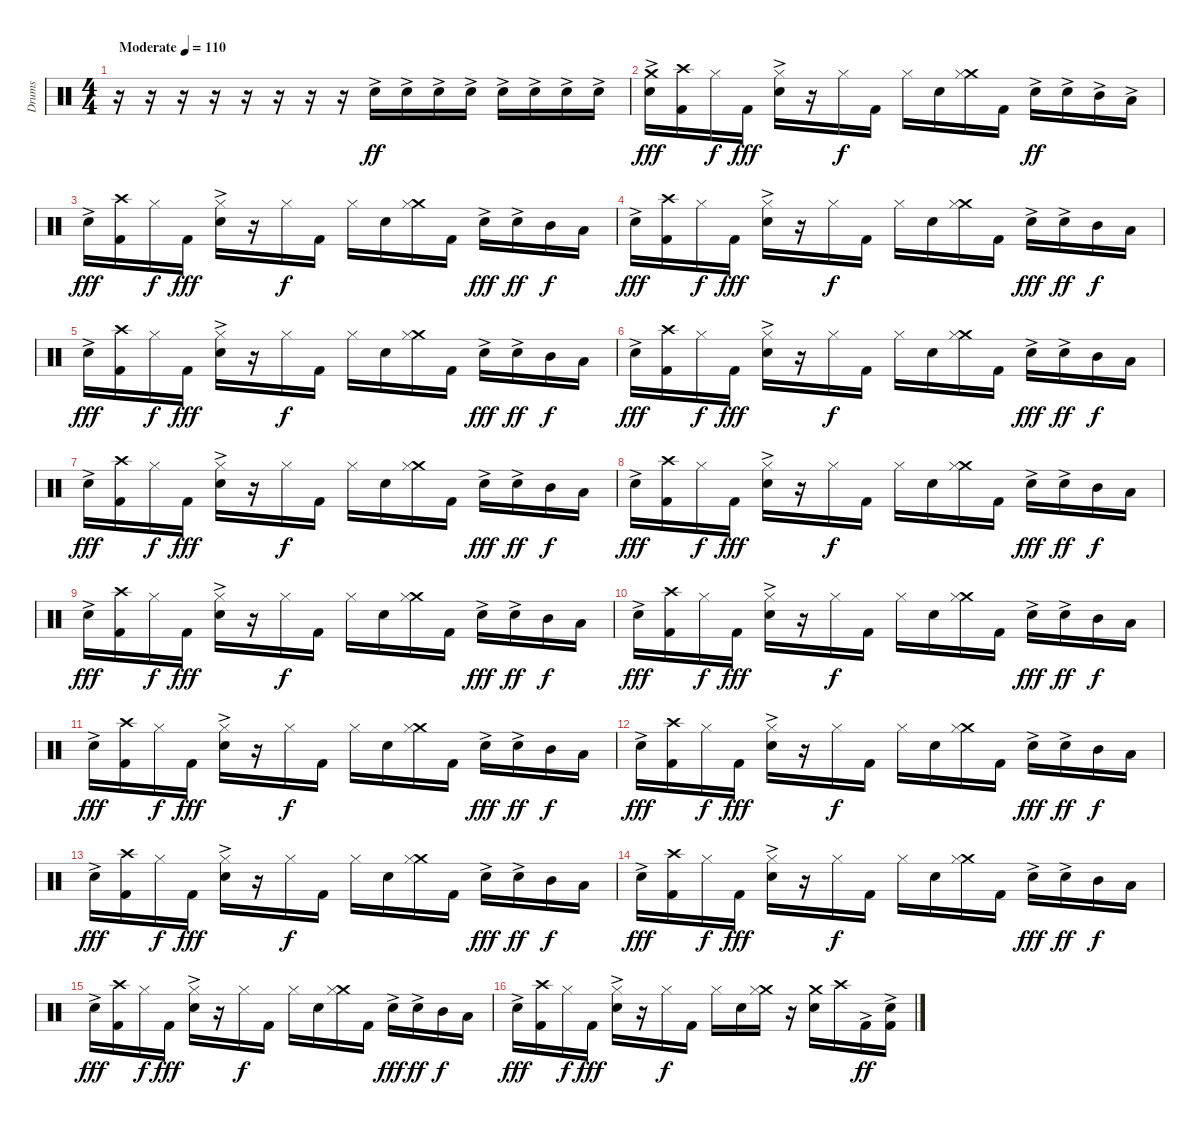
\track ("Drums" "Drums") {instrument percussion}
\staff {score}
\articulation defaults
\ts (4 4)
\tempo (110 "Moderate")
\clef neutral
\ks c
r.16{dy ff} r.16 r.16 r.16 r.16 r.16 r.16 r.16 "Electric Snare (hit)"{ac}.16 "Electric Snare (hit)"{ac}.16 "Electric Snare (hit)"{ac}.16 "Electric Snare (hit)"{ac}.16 "Electric Snare (hit)"{ac}.16 "Electric Snare (hit)"{ac}.16 "Electric Snare (hit)"{ac}.16 "Electric Snare (hit)"{ac}.16 |
("Crash medium (hit)" "Electric Snare (hit)"{ac}).16{dy fff} ("Crash high (hit)" "Kick (hit) 2").16 "Hi-Hat (closed)".16{dy f} "Kick (hit) 2".16{dy fff} ("Hi-Hat (closed)" "Snare (hit) 2"{ac}).16 r.16 "Hi-Hat (closed)".16{dy f} "Kick (hit) 2".16 "Hi-Hat (closed)".16 "Snare (hit) 2".16 ("Crash medium (hit)" "Hi-Hat (closed)").16 "Kick (hit) 2".16 "Electric Snare (hit)"{ac}.16{dy ff} "Electric Snare (hit)"{ac}.16 "Mid Tom (hit)"{ac}.16 "Low Tom (hit)"{ac}.16 |
"Electric Snare (hit)"{ac}.16{dy fff} ("Crash high (hit)" "Kick (hit) 2").16 "Hi-Hat (closed)".16{dy f} "Kick (hit) 2".16{dy fff} ("Hi-Hat (closed)" "Snare (hit) 2"{ac}).16 r.16 "Hi-Hat (closed)".16{dy f} "Kick (hit) 2".16 "Hi-Hat (closed)".16 "Snare (hit) 2".16 ("Crash medium (hit)" "Hi-Hat (closed)").16 "Kick (hit) 2".16 "Electric Snare (hit)"{ac}.16{dy fff} "Electric Snare (hit)"{ac}.16{dy ff} "Mid Tom (hit)".16{dy f} "Low Tom (hit)".16 |
"Electric Snare (hit)"{ac}.16{dy fff} ("Crash high (hit)" "Kick (hit) 2").16 "Hi-Hat (closed)".16{dy f} "Kick (hit) 2".16{dy fff} ("Hi-Hat (closed)" "Snare (hit) 2"{ac}).16 r.16 "Hi-Hat (closed)".16{dy f} "Kick (hit) 2".16 "Hi-Hat (closed)".16 "Snare (hit) 2".16 ("Crash medium (hit)" "Hi-Hat (closed)").16 "Kick (hit) 2".16 "Electric Snare (hit)"{ac}.16{dy fff} "Electric Snare (hit)"{ac}.16{dy ff} "Mid Tom (hit)".16{dy f} "Low Tom (hit)".16 |
"Electric Snare (hit)"{ac}.16{dy fff} ("Crash high (hit)" "Kick (hit) 2").16 "Hi-Hat (closed)".16{dy f} "Kick (hit) 2".16{dy fff} ("Hi-Hat (closed)" "Snare (hit) 2"{ac}).16 r.16 "Hi-Hat (closed)".16{dy f} "Kick (hit) 2".16 "Hi-Hat (closed)".16 "Snare (hit) 2".16 ("Crash medium (hit)" "Hi-Hat (closed)").16 "Kick (hit) 2".16 "Electric Snare (hit)"{ac}.16{dy fff} "Electric Snare (hit)"{ac}.16{dy ff} "Mid Tom (hit)".16{dy f} "Low Tom (hit)".16 |
"Electric Snare (hit)"{ac}.16{dy fff} ("Crash high (hit)" "Kick (hit) 2").16 "Hi-Hat (closed)".16{dy f} "Kick (hit) 2".16{dy fff} ("Hi-Hat (closed)" "Snare (hit) 2"{ac}).16 r.16 "Hi-Hat (closed)".16{dy f} "Kick (hit) 2".16 "Hi-Hat (closed)".16 "Snare (hit) 2".16 ("Crash medium (hit)" "Hi-Hat (closed)").16 "Kick (hit) 2".16 "Electric Snare (hit)"{ac}.16{dy fff} "Electric Snare (hit)"{ac}.16{dy ff} "Mid Tom (hit)".16{dy f} "Low Tom (hit)".16 |
"Electric Snare (hit)"{ac}.16{dy fff} ("Crash high (hit)" "Kick (hit) 2").16 "Hi-Hat (closed)".16{dy f} "Kick (hit) 2".16{dy fff} ("Hi-Hat (closed)" "Snare (hit) 2"{ac}).16 r.16 "Hi-Hat (closed)".16{dy f} "Kick (hit) 2".16 "Hi-Hat (closed)".16 "Snare (hit) 2".16 ("Crash medium (hit)" "Hi-Hat (closed)").16 "Kick (hit) 2".16 "Electric Snare (hit)"{ac}.16{dy fff} "Electric Snare (hit)"{ac}.16{dy ff} "Mid Tom (hit)".16{dy f} "Low Tom (hit)".16 |
"Electric Snare (hit)"{ac}.16{dy fff} ("Crash high (hit)" "Kick (hit) 2").16 "Hi-Hat (closed)".16{dy f} "Kick (hit) 2".16{dy fff} ("Hi-Hat (closed)" "Snare (hit) 2"{ac}).16 r.16 "Hi-Hat (closed)".16{dy f} "Kick (hit) 2".16 "Hi-Hat (closed)".16 "Snare (hit) 2".16 ("Crash medium (hit)" "Hi-Hat (closed)").16 "Kick (hit) 2".16 "Electric Snare (hit)"{ac}.16{dy fff} "Electric Snare (hit)"{ac}.16{dy ff} "Mid Tom (hit)".16{dy f} "Low Tom (hit)".16 |
"Electric Snare (hit)"{ac}.16{dy fff} ("Crash high (hit)" "Kick (hit) 2").16 "Hi-Hat (closed)".16{dy f} "Kick (hit) 2".16{dy fff} ("Hi-Hat (closed)" "Snare (hit) 2"{ac}).16 r.16 "Hi-Hat (closed)".16{dy f} "Kick (hit) 2".16 "Hi-Hat (closed)".16 "Snare (hit) 2".16 ("Crash medium (hit)" "Hi-Hat (closed)").16 "Kick (hit) 2".16 "Electric Snare (hit)"{ac}.16{dy fff} "Electric Snare (hit)"{ac}.16{dy ff} "Mid Tom (hit)".16{dy f} "Low Tom (hit)".16 |
"Electric Snare (hit)"{ac}.16{dy fff} ("Crash high (hit)" "Kick (hit) 2").16 "Hi-Hat (closed)".16{dy f} "Kick (hit) 2".16{dy fff} ("Hi-Hat (closed)" "Snare (hit) 2"{ac}).16 r.16 "Hi-Hat (closed)".16{dy f} "Kick (hit) 2".16 "Hi-Hat (closed)".16 "Snare (hit) 2".16 ("Crash medium (hit)" "Hi-Hat (closed)").16 "Kick (hit) 2".16 "Electric Snare (hit)"{ac}.16{dy fff} "Electric Snare (hit)"{ac}.16{dy ff} "Mid Tom (hit)".16{dy f} "Low Tom (hit)".16 |
"Electric Snare (hit)"{ac}.16{dy fff} ("Crash high (hit)" "Kick (hit) 2").16 "Hi-Hat (closed)".16{dy f} "Kick (hit) 2".16{dy fff} ("Hi-Hat (closed)" "Snare (hit) 2"{ac}).16 r.16 "Hi-Hat (closed)".16{dy f} "Kick (hit) 2".16 "Hi-Hat (closed)".16 "Snare (hit) 2".16 ("Crash medium (hit)" "Hi-Hat (closed)").16 "Kick (hit) 2".16 "Electric Snare (hit)"{ac}.16{dy fff} "Electric Snare (hit)"{ac}.16{dy ff} "Mid Tom (hit)".16{dy f} "Low Tom (hit)".16 |
"Electric Snare (hit)"{ac}.16{dy fff} ("Crash high (hit)" "Kick (hit) 2").16 "Hi-Hat (closed)".16{dy f} "Kick (hit) 2".16{dy fff} ("Hi-Hat (closed)" "Snare (hit) 2"{ac}).16 r.16 "Hi-Hat (closed)".16{dy f} "Kick (hit) 2".16 "Hi-Hat (closed)".16 "Snare (hit) 2".16 ("Crash medium (hit)" "Hi-Hat (closed)").16 "Kick (hit) 2".16 "Electric Snare (hit)"{ac}.16{dy fff} "Electric Snare (hit)"{ac}.16{dy ff} "Mid Tom (hit)".16{dy f} "Low Tom (hit)".16 |
"Electric Snare (hit)"{ac}.16{dy fff} ("Crash high (hit)" "Kick (hit) 2").16 "Hi-Hat (closed)".16{dy f} "Kick (hit) 2".16{dy fff} ("Hi-Hat (closed)" "Snare (hit) 2"{ac}).16 r.16 "Hi-Hat (closed)".16{dy f} "Kick (hit) 2".16 "Hi-Hat (closed)".16 "Snare (hit) 2".16 ("Crash medium (hit)" "Hi-Hat (closed)").16 "Kick (hit) 2".16 "Electric Snare (hit)"{ac}.16{dy fff} "Electric Snare (hit)"{ac}.16{dy ff} "Mid Tom (hit)".16{dy f} "Low Tom (hit)".16 |
"Electric Snare (hit)"{ac}.16{dy fff} ("Crash high (hit)" "Kick (hit) 2").16 "Hi-Hat (closed)".16{dy f} "Kick (hit) 2".16{dy fff} ("Hi-Hat (closed)" "Snare (hit) 2"{ac}).16 r.16 "Hi-Hat (closed)".16{dy f} "Kick (hit) 2".16 "Hi-Hat (closed)".16 "Snare (hit) 2".16 ("Crash medium (hit)" "Hi-Hat (closed)").16 "Kick (hit) 2".16 "Electric Snare (hit)"{ac}.16{dy fff} "Electric Snare (hit)"{ac}.16{dy ff} "Mid Tom (hit)".16{dy f} "Low Tom (hit)".16 |
"Electric Snare (hit)"{ac}.16{dy fff} ("Crash high (hit)" "Kick (hit) 2").16 "Hi-Hat (closed)".16{dy f} "Kick (hit) 2".16{dy fff} ("Hi-Hat (closed)" "Snare (hit) 2"{ac}).16 r.16 "Hi-Hat (closed)".16{dy f} "Kick (hit) 2".16 "Hi-Hat (closed)".16 "Snare (hit) 2".16 ("Crash medium (hit)" "Hi-Hat (closed)").16 "Kick (hit) 2".16 "Electric Snare (hit)"{ac}.16{dy fff} "Electric Snare (hit)"{ac}.16{dy ff} "Mid Tom (hit)".16{dy f} "Low Tom (hit)".16 |
"Electric Snare (hit)"{ac}.16{dy fff} ("Crash high (hit)" "Kick (hit) 2").16 "Hi-Hat (closed)".16{dy f} "Kick (hit) 2".16{dy fff} ("Hi-Hat (closed)" "Snare (hit) 2"{ac}).16 r.16 "Hi-Hat (closed)".16{dy f} "Kick (hit) 2".16 "Hi-Hat (closed)".16 "Snare (hit) 2".16 ("Crash medium (hit)" "Hi-Hat (closed)").16 r.16 ("Crash medium (hit)" "Electric Snare (hit)").16 "Crash high (hit)".16 "Kick (hit) 2"{ac}.16{dy ff} ("Electric Snare (hit)" "Kick (hit) 2"{ac}).16
